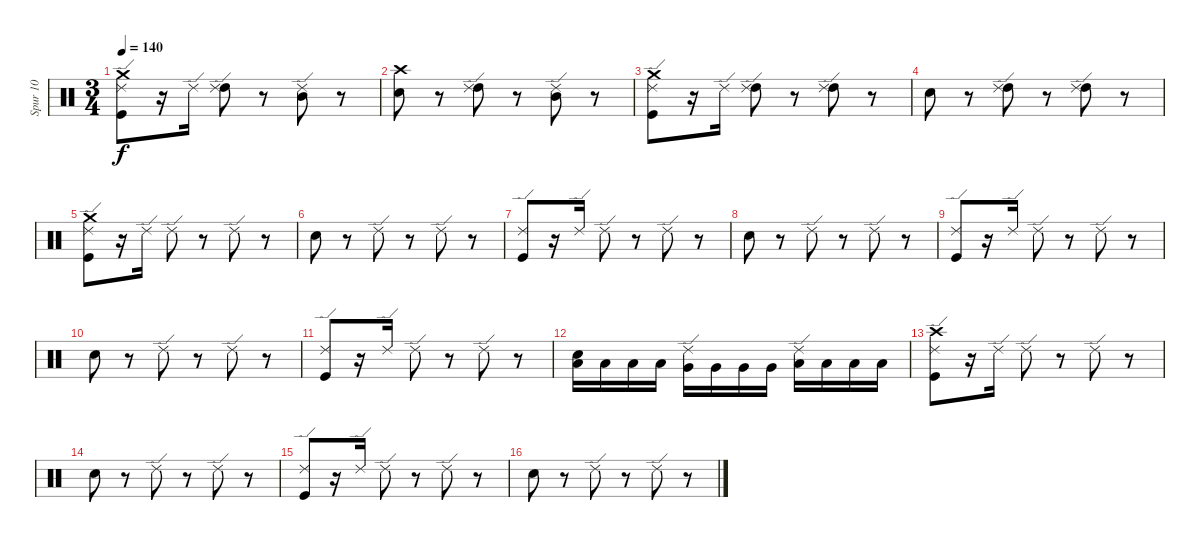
\track ("Spur 10" "Spur 10") {instrument percussion}
\staff {score}
\articulation defaults
\ts (3 4)
\tempo 140
\clef neutral
\ks c
("Crash medium (hit)" "Ride (edge) 2" "Kick (hit)").8{dy f} r.16 "Ride (edge) 2".16 ("High Tom (hit)" "Ride (edge) 2").8 r.8 ("Mid Tom (hit)" "Ride (edge) 2").8 r.8 |
("Crash high (hit)" "Snare (hit) 2").8 r.8 ("High Tom (hit)" "Ride (edge) 2").8 r.8 ("Mid Tom (hit)" "Ride (edge) 2").8 r.8 |
("Crash medium (hit)" "Ride (edge) 2" "Kick (hit)").8 r.16 "Ride (edge) 2".16 ("High Tom (hit)" "Ride (edge) 2").8 r.8 ("High Tom (hit)" "Ride (edge) 2").8 r.8 |
"Snare (hit) 2".8 r.8 ("High Tom (hit)" "Ride (edge) 2").8 r.8 ("High Tom (hit)" "Ride (edge) 2").8 r.8 |
("Crash medium (hit)" "Ride (edge) 2" "Kick (hit)").8 r.16 "Ride (edge) 2".16 "Ride (edge) 2".8 r.8 "Ride (edge) 2".8 r.8 |
"Snare (hit) 2".8 r.8 "Ride (edge) 2".8 r.8 "Ride (edge) 2".8 r.8 |
("Ride (edge) 2" "Kick (hit)").8 r.16 "Ride (edge) 2".16 "Ride (edge) 2".8 r.8 "Ride (edge) 2".8 r.8 |
"Snare (hit) 2".8 r.8 "Ride (edge) 2".8 r.8 "Ride (edge) 2".8 r.8 |
("Ride (edge) 2" "Kick (hit)").8 r.16 "Ride (edge) 2".16 "Ride (edge) 2".8 r.8 "Ride (edge) 2".8 r.8 |
"Snare (hit) 2".8 r.8 "Ride (edge) 2".8 r.8 "Ride (edge) 2".8 r.8 |
("Ride (edge) 2" "Kick (hit)").8 r.16 "Ride (edge) 2".16 "Ride (edge) 2".8 r.8 "Ride (edge) 2".8 r.8 |
("Low Tom (hit)" "Snare (hit) 2").16 "Low Tom (hit)".16 "Low Tom (hit)".16 "Low Tom (hit)".16 ("Very Low Tom (hit)" "Ride (edge) 2").16 "Very Low Tom (hit)".16 "Very Low Tom (hit)".16 "Very Low Tom (hit)".16 ("Low Floor Tom (hit)" "Ride (edge) 2").16 "Low Floor Tom (hit)".16 "Low Floor Tom (hit)".16 "Low Floor Tom (hit)".16 |
("Crash high (hit)" "Ride (edge) 2" "Kick (hit)").8 r.16 "Ride (edge) 2".16 "Ride (edge) 2".8 r.8 "Ride (edge) 2".8 r.8 |
"Snare (hit) 2".8 r.8 "Ride (edge) 2".8 r.8 "Ride (edge) 2".8 r.8 |
("Ride (edge) 2" "Kick (hit)").8 r.16 "Ride (edge) 2".16 "Ride (edge) 2".8 r.8 "Ride (edge) 2".8 r.8 |
"Snare (hit) 2".8 r.8 "Ride (edge) 2".8 r.8 "Ride (edge) 2".8 r.8
